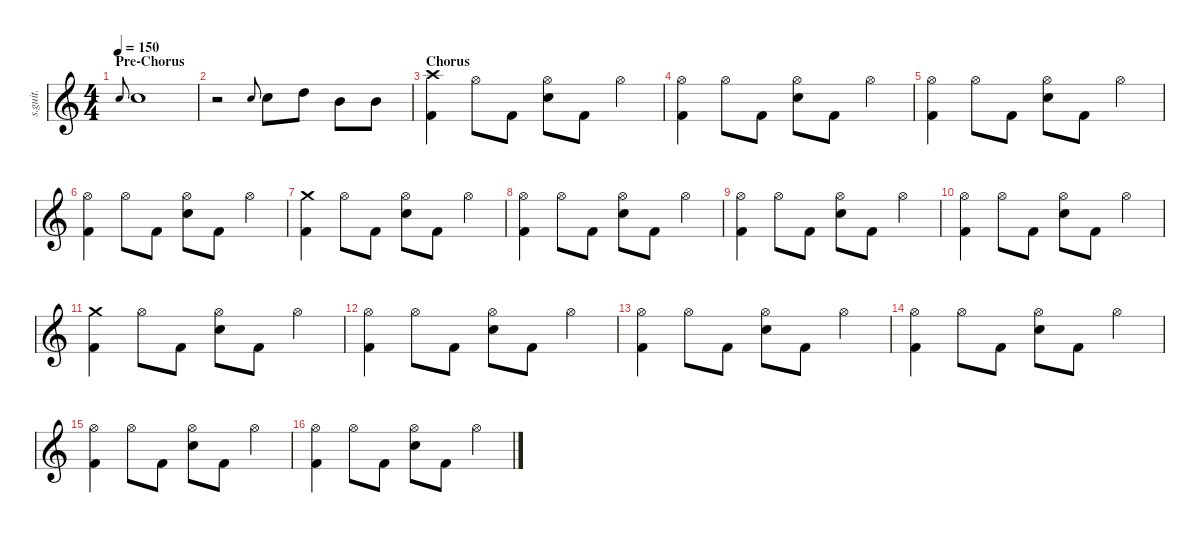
\defaultSystemsLayout 4
\hideDynamics
\bracketExtendMode nobrackets
\track ("Christoph Schneider" "s.guit.") {instrument percussion}
\staff {score}
\articulation defaults
\ts (4 4)
\section ("" "Pre-Chorus")
\tempo 150
\clef g2
\ks c "Snare (hit) 2".8{lyrics (0 "") lyrics (1 "") lyrics (2 "") lyrics (3 "") lyrics (4 "") gr onbeat dy ff} "Snare (hit) 2".1{lyrics (0 "") lyrics (1 "") lyrics (2 "") lyrics (3 "") lyrics (4 "")}
|
r.2 "Snare (hit) 2".8{lyrics (0 "") lyrics (1 "") lyrics (2 "") lyrics (3 "") lyrics (4 "") gr onbeat} "Snare (hit) 2".8{lyrics (0 "") lyrics (1 "") lyrics (2 "") lyrics (3 "") lyrics (4 "")} "High Tom (hit)".8{lyrics (0 "") lyrics (1 "") lyrics (2 "") lyrics (3 "") lyrics (4 "")} "Mid Tom (hit)".8{lyrics (0 "") lyrics (1 "") lyrics (2 "") lyrics (3 "") lyrics (4 "")} "Mid Tom (hit)".8{lyrics (0 "") lyrics (1 "") lyrics (2 "") lyrics (3 "") lyrics (4 "")} |
\section ("" "Chorus")
("Kick (hit) 2" "Crash high (hit)").4{lyrics (0 "") lyrics (1 "") lyrics (2 "") lyrics (3 "") lyrics (4 "")} "Hi-Hat (open)".8{lyrics (0 "") lyrics (1 "") lyrics (2 "") lyrics (3 "") lyrics (4 "")} "Kick (hit) 2".8{lyrics (0 "") lyrics (1 "") lyrics (2 "") lyrics (3 "") lyrics (4 "")} ("Snare (hit) 2" "Hi-Hat (open)").8{lyrics (0 "") lyrics (1 "") lyrics (2 "") lyrics (3 "") lyrics (4 "")} "Kick (hit) 2".8{lyrics (0 "") lyrics (1 "") lyrics (2 "") lyrics (3 "") lyrics (4 "")} "Hi-Hat (open)".4{lyrics (0 "") lyrics (1 "") lyrics (2 "") lyrics (3 "") lyrics (4 "")} |
("Kick (hit) 2" "Hi-Hat (open)").4{lyrics (0 "") lyrics (1 "") lyrics (2 "") lyrics (3 "") lyrics (4 "")} "Hi-Hat (open)".8{lyrics (0 "") lyrics (1 "") lyrics (2 "") lyrics (3 "") lyrics (4 "")} "Kick (hit) 2".8{lyrics (0 "") lyrics (1 "") lyrics (2 "") lyrics (3 "") lyrics (4 "")} ("Snare (hit) 2" "Hi-Hat (open)").8{lyrics (0 "") lyrics (1 "") lyrics (2 "") lyrics (3 "") lyrics (4 "")} "Kick (hit) 2".8{lyrics (0 "") lyrics (1 "") lyrics (2 "") lyrics (3 "") lyrics (4 "")} "Hi-Hat (open)".4{lyrics (0 "") lyrics (1 "") lyrics (2 "") lyrics (3 "") lyrics (4 "")} |
("Kick (hit) 2" "Hi-Hat (open)").4{lyrics (0 "") lyrics (1 "") lyrics (2 "") lyrics (3 "") lyrics (4 "")} "Hi-Hat (open)".8{lyrics (0 "") lyrics (1 "") lyrics (2 "") lyrics (3 "") lyrics (4 "")} "Kick (hit) 2".8{lyrics (0 "") lyrics (1 "") lyrics (2 "") lyrics (3 "") lyrics (4 "")} ("Snare (hit) 2" "Hi-Hat (open)").8{lyrics (0 "") lyrics (1 "") lyrics (2 "") lyrics (3 "") lyrics (4 "")} "Kick (hit) 2".8{lyrics (0 "") lyrics (1 "") lyrics (2 "") lyrics (3 "") lyrics (4 "")} "Hi-Hat (open)".4{lyrics (0 "") lyrics (1 "") lyrics (2 "") lyrics (3 "") lyrics (4 "")} |
("Kick (hit) 2" "Hi-Hat (open)").4{lyrics (0 "") lyrics (1 "") lyrics (2 "") lyrics (3 "") lyrics (4 "")} "Hi-Hat (open)".8{lyrics (0 "") lyrics (1 "") lyrics (2 "") lyrics (3 "") lyrics (4 "")} "Kick (hit) 2".8{lyrics (0 "") lyrics (1 "") lyrics (2 "") lyrics (3 "") lyrics (4 "")} ("Snare (hit) 2" "Hi-Hat (open)").8{lyrics (0 "") lyrics (1 "") lyrics (2 "") lyrics (3 "") lyrics (4 "")} "Kick (hit) 2".8{lyrics (0 "") lyrics (1 "") lyrics (2 "") lyrics (3 "") lyrics (4 "")} "Hi-Hat (open)".4{lyrics (0 "") lyrics (1 "") lyrics (2 "") lyrics (3 "") lyrics (4 "")} |
("Crash medium (hit)" "Kick (hit) 2").4{lyrics (0 "") lyrics (1 "") lyrics (2 "") lyrics (3 "") lyrics (4 "")} "Hi-Hat (open)".8{lyrics (0 "") lyrics (1 "") lyrics (2 "") lyrics (3 "") lyrics (4 "")} "Kick (hit) 2".8{lyrics (0 "") lyrics (1 "") lyrics (2 "") lyrics (3 "") lyrics (4 "")} ("Snare (hit) 2" "Hi-Hat (open)").8{lyrics (0 "") lyrics (1 "") lyrics (2 "") lyrics (3 "") lyrics (4 "")} "Kick (hit) 2".8{lyrics (0 "") lyrics (1 "") lyrics (2 "") lyrics (3 "") lyrics (4 "")} "Hi-Hat (open)".4{lyrics (0 "") lyrics (1 "") lyrics (2 "") lyrics (3 "") lyrics (4 "")} |
("Kick (hit) 2" "Hi-Hat (open)").4{lyrics (0 "") lyrics (1 "") lyrics (2 "") lyrics (3 "") lyrics (4 "")} "Hi-Hat (open)".8{lyrics (0 "") lyrics (1 "") lyrics (2 "") lyrics (3 "") lyrics (4 "")} "Kick (hit) 2".8{lyrics (0 "") lyrics (1 "") lyrics (2 "") lyrics (3 "") lyrics (4 "")} ("Snare (hit) 2" "Hi-Hat (open)").8{lyrics (0 "") lyrics (1 "") lyrics (2 "") lyrics (3 "") lyrics (4 "")} "Kick (hit) 2".8{lyrics (0 "") lyrics (1 "") lyrics (2 "") lyrics (3 "") lyrics (4 "")} "Hi-Hat (open)".4{lyrics (0 "") lyrics (1 "") lyrics (2 "") lyrics (3 "") lyrics (4 "")} |
("Kick (hit) 2" "Hi-Hat (open)").4{lyrics (0 "") lyrics (1 "") lyrics (2 "") lyrics (3 "") lyrics (4 "")} "Hi-Hat (open)".8{lyrics (0 "") lyrics (1 "") lyrics (2 "") lyrics (3 "") lyrics (4 "")} "Kick (hit) 2".8{lyrics (0 "") lyrics (1 "") lyrics (2 "") lyrics (3 "") lyrics (4 "")} ("Snare (hit) 2" "Hi-Hat (open)").8{lyrics (0 "") lyrics (1 "") lyrics (2 "") lyrics (3 "") lyrics (4 "")} "Kick (hit) 2".8{lyrics (0 "") lyrics (1 "") lyrics (2 "") lyrics (3 "") lyrics (4 "")} "Hi-Hat (open)".4{lyrics (0 "") lyrics (1 "") lyrics (2 "") lyrics (3 "") lyrics (4 "")} |
("Kick (hit) 2" "Hi-Hat (open)").4{lyrics (0 "") lyrics (1 "") lyrics (2 "") lyrics (3 "") lyrics (4 "")} "Hi-Hat (open)".8{lyrics (0 "") lyrics (1 "") lyrics (2 "") lyrics (3 "") lyrics (4 "")} "Kick (hit) 2".8{lyrics (0 "") lyrics (1 "") lyrics (2 "") lyrics (3 "") lyrics (4 "")} ("Snare (hit) 2" "Hi-Hat (open)").8{lyrics (0 "") lyrics (1 "") lyrics (2 "") lyrics (3 "") lyrics (4 "")} "Kick (hit) 2".8{lyrics (0 "") lyrics (1 "") lyrics (2 "") lyrics (3 "") lyrics (4 "")} "Hi-Hat (open)".4{lyrics (0 "") lyrics (1 "") lyrics (2 "") lyrics (3 "") lyrics (4 "")} |
("Kick (hit) 2" "Crash medium (hit)").4{lyrics (0 "") lyrics (1 "") lyrics (2 "") lyrics (3 "") lyrics (4 "")} "Hi-Hat (open)".8{lyrics (0 "") lyrics (1 "") lyrics (2 "") lyrics (3 "") lyrics (4 "")} "Kick (hit) 2".8{lyrics (0 "") lyrics (1 "") lyrics (2 "") lyrics (3 "") lyrics (4 "")} ("Snare (hit) 2" "Hi-Hat (open)").8{lyrics (0 "") lyrics (1 "") lyrics (2 "") lyrics (3 "") lyrics (4 "")} "Kick (hit) 2".8{lyrics (0 "") lyrics (1 "") lyrics (2 "") lyrics (3 "") lyrics (4 "")} "Hi-Hat (open)".4{lyrics (0 "") lyrics (1 "") lyrics (2 "") lyrics (3 "") lyrics (4 "")} |
("Kick (hit) 2" "Hi-Hat (open)").4{lyrics (0 "") lyrics (1 "") lyrics (2 "") lyrics (3 "") lyrics (4 "")} "Hi-Hat (open)".8{lyrics (0 "") lyrics (1 "") lyrics (2 "") lyrics (3 "") lyrics (4 "")} "Kick (hit) 2".8{lyrics (0 "") lyrics (1 "") lyrics (2 "") lyrics (3 "") lyrics (4 "")} ("Snare (hit) 2" "Hi-Hat (open)").8{lyrics (0 "") lyrics (1 "") lyrics (2 "") lyrics (3 "") lyrics (4 "")} "Kick (hit) 2".8{lyrics (0 "") lyrics (1 "") lyrics (2 "") lyrics (3 "") lyrics (4 "")} "Hi-Hat (open)".4{lyrics (0 "") lyrics (1 "") lyrics (2 "") lyrics (3 "") lyrics (4 "")} |
("Kick (hit) 2" "Hi-Hat (open)").4{lyrics (0 "") lyrics (1 "") lyrics (2 "") lyrics (3 "") lyrics (4 "")} "Hi-Hat (open)".8{lyrics (0 "") lyrics (1 "") lyrics (2 "") lyrics (3 "") lyrics (4 "")} "Kick (hit) 2".8{lyrics (0 "") lyrics (1 "") lyrics (2 "") lyrics (3 "") lyrics (4 "")} ("Snare (hit) 2" "Hi-Hat (open)").8{lyrics (0 "") lyrics (1 "") lyrics (2 "") lyrics (3 "") lyrics (4 "")} "Kick (hit) 2".8{lyrics (0 "") lyrics (1 "") lyrics (2 "") lyrics (3 "") lyrics (4 "")} "Hi-Hat (open)".4{lyrics (0 "") lyrics (1 "") lyrics (2 "") lyrics (3 "") lyrics (4 "")} |
("Kick (hit) 2" "Hi-Hat (open)").4{lyrics (0 "") lyrics (1 "") lyrics (2 "") lyrics (3 "") lyrics (4 "")} "Hi-Hat (open)".8{lyrics (0 "") lyrics (1 "") lyrics (2 "") lyrics (3 "") lyrics (4 "")} "Kick (hit) 2".8{lyrics (0 "") lyrics (1 "") lyrics (2 "") lyrics (3 "") lyrics (4 "")} ("Snare (hit) 2" "Hi-Hat (open)").8{lyrics (0 "") lyrics (1 "") lyrics (2 "") lyrics (3 "") lyrics (4 "")} "Kick (hit) 2".8{lyrics (0 "") lyrics (1 "") lyrics (2 "") lyrics (3 "") lyrics (4 "")} "Hi-Hat (open)".4{lyrics (0 "") lyrics (1 "") lyrics (2 "") lyrics (3 "") lyrics (4 "")} |
("Kick (hit) 2" "Hi-Hat (open)").4{lyrics (0 "") lyrics (1 "") lyrics (2 "") lyrics (3 "") lyrics (4 "")} "Hi-Hat (open)".8{lyrics (0 "") lyrics (1 "") lyrics (2 "") lyrics (3 "") lyrics (4 "")} "Kick (hit) 2".8{lyrics (0 "") lyrics (1 "") lyrics (2 "") lyrics (3 "") lyrics (4 "")} ("Snare (hit) 2" "Hi-Hat (open)").8{lyrics (0 "") lyrics (1 "") lyrics (2 "") lyrics (3 "") lyrics (4 "")} "Kick (hit) 2".8{lyrics (0 "") lyrics (1 "") lyrics (2 "") lyrics (3 "") lyrics (4 "")} "Hi-Hat (open)".4{lyrics (0 "") lyrics (1 "") lyrics (2 "") lyrics (3 "") lyrics (4 "")} |
("Kick (hit) 2" "Hi-Hat (open)").4{lyrics (0 "") lyrics (1 "") lyrics (2 "") lyrics (3 "") lyrics (4 "")} "Hi-Hat (open)".8{lyrics (0 "") lyrics (1 "") lyrics (2 "") lyrics (3 "") lyrics (4 "")} "Kick (hit) 2".8{lyrics (0 "") lyrics (1 "") lyrics (2 "") lyrics (3 "") lyrics (4 "")} ("Snare (hit) 2" "Hi-Hat (open)").8{lyrics (0 "") lyrics (1 "") lyrics (2 "") lyrics (3 "") lyrics (4 "")} "Kick (hit) 2".8{lyrics (0 "") lyrics (1 "") lyrics (2 "") lyrics (3 "") lyrics (4 "")} "Hi-Hat (open)".4{lyrics (0 "") lyrics (1 "") lyrics (2 "") lyrics (3 "") lyrics (4 "")}
